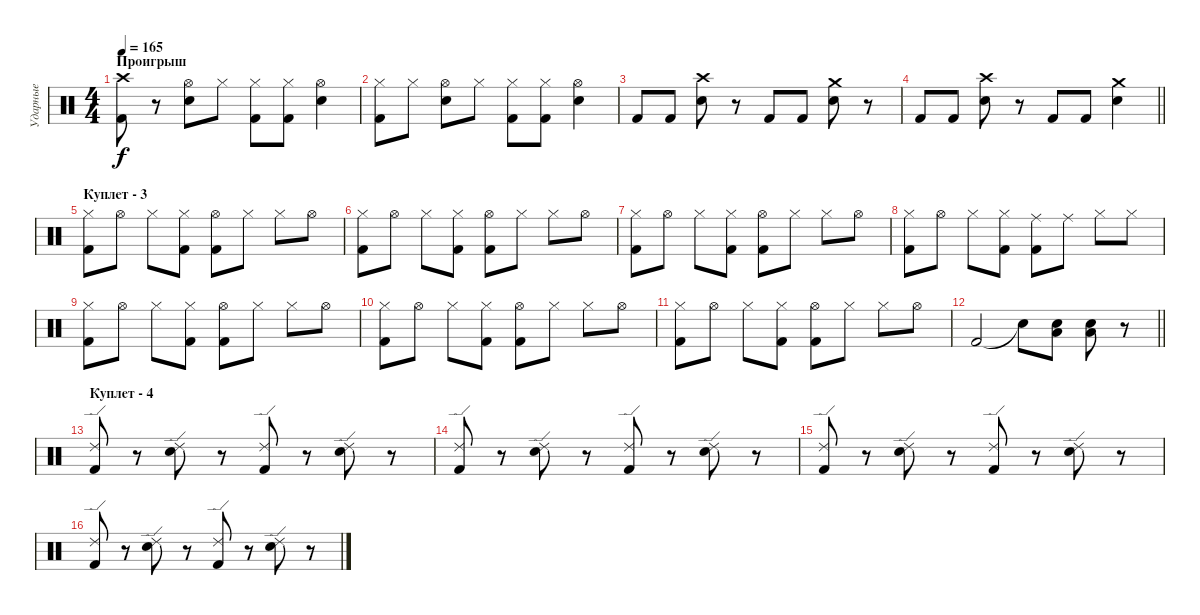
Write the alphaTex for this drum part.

\track ("Ударные" "Ударные") {instrument percussion}
\staff {score}
\articulation defaults
\ts (4 4)
\section ("" "Проигрыш ")
\tempo 165
\clef neutral
\ks c
("Crash high (hit)" "Kick (hit) 2").8{dy f} r.8 ("Hi-Hat (open)" "Snare (hit) 2").8 "Hi-Hat (closed)".8 ("Hi-Hat (closed)" "Kick (hit) 2").8 ("Hi-Hat (closed)" "Kick (hit) 2").8 ("Hi-Hat (open)" "Snare (hit) 2").4 |
("Hi-Hat (closed)" "Kick (hit) 2").8 "Hi-Hat (closed)".8 ("Hi-Hat (open)" "Snare (hit) 2").8 "Hi-Hat (closed)".8 ("Hi-Hat (closed)" "Kick (hit) 2").8 ("Hi-Hat (closed)" "Kick (hit) 2").8 ("Hi-Hat (open)" "Snare (hit) 2").4 |
"Kick (hit) 2".8 "Kick (hit) 2".8 ("Crash high (hit)" "Snare (hit) 2").8 r.8 "Kick (hit) 2".8 "Kick (hit) 2".8 ("Crash medium (hit)" "Snare (hit) 2").8 r.8 |
\barLineRight lightlight "Kick (hit) 2".8 "Kick (hit) 2".8
("Crash high (hit)" "Snare (hit) 2").8 r.8 "Kick (hit) 2".8 "Kick (hit) 2".8 ("Crash medium (hit)" "Snare (hit) 2").4 |
\section ("" "Куплет - 3")
("Hi-Hat (closed)" "Kick (hit) 2").8 "Hi-Hat (open)".8 "Hi-Hat (closed)".8 ("Hi-Hat (closed)" "Kick (hit) 2").8 ("Hi-Hat (open)" "Kick (hit) 2").8 "Hi-Hat (closed)".8 "Hi-Hat (closed)".8 "Hi-Hat (open)".8 |
("Hi-Hat (closed)" "Kick (hit) 2").8 "Hi-Hat (open)".8 "Hi-Hat (closed)".8 ("Hi-Hat (closed)" "Kick (hit) 2").8 ("Hi-Hat (open)" "Kick (hit) 2").8 "Hi-Hat (closed)".8 "Hi-Hat (closed)".8 "Hi-Hat (open)".8 |
("Hi-Hat (closed)" "Kick (hit) 2").8 "Hi-Hat (open)".8 "Hi-Hat (closed)".8 ("Hi-Hat (closed)" "Kick (hit) 2").8 ("Hi-Hat (open)" "Kick (hit) 2").8 "Hi-Hat (closed)".8 "Hi-Hat (closed)".8 "Hi-Hat (open)".8 |
("Hi-Hat (closed)" "Kick (hit) 2").8 "Hi-Hat (open)".8 "Hi-Hat (closed)".8 ("Hi-Hat (closed)" "Kick (hit) 2").8 ("Ride (middle)" "Kick (hit) 2").8 "Ride (middle)".8 "Hi-Hat (closed)".8 "Hi-Hat (closed)".8 |
("Hi-Hat (closed)" "Kick (hit) 2").8 "Hi-Hat (open)".8 "Hi-Hat (closed)".8 ("Hi-Hat (closed)" "Kick (hit) 2").8 ("Hi-Hat (open)" "Kick (hit) 2").8 "Hi-Hat (closed)".8 "Hi-Hat (closed)".8 "Hi-Hat (open)".8 |
("Hi-Hat (closed)" "Kick (hit) 2").8 "Hi-Hat (open)".8 "Hi-Hat (closed)".8 ("Hi-Hat (closed)" "Kick (hit) 2").8 ("Hi-Hat (open)" "Kick (hit) 2").8 "Hi-Hat (closed)".8 "Hi-Hat (closed)".8 "Hi-Hat (open)".8 |
("Hi-Hat (closed)" "Kick (hit) 2").8 "Hi-Hat (open)".8 "Hi-Hat (closed)".8 ("Hi-Hat (closed)" "Kick (hit) 2").8 ("Hi-Hat (open)" "Kick (hit) 2").8 "Hi-Hat (closed)".8 "Hi-Hat (closed)".8 "Hi-Hat (open)".8 |
\barLineRight lightlight "Kick (hit) 2".2 "Snare (hit)"{t}.8
("Low Tom (hit)" "Snare (hit) 2").8 ("Low Floor Tom (hit)" "Snare (hit) 2").8 r.8 |
\section ("" "Куплет - 4")
("Kick (hit) 2" "Ride (edge) 2").8 r.8 ("Snare (hit) 2" "Ride (edge) 2").8 r.8 ("Kick (hit) 2" "Ride (edge) 2").8 r.8 ("Snare (hit) 2" "Ride (edge) 2").8 r.8 |
("Kick (hit) 2" "Ride (edge) 2").8 r.8 ("Snare (hit) 2" "Ride (edge) 2").8 r.8 ("Kick (hit) 2" "Ride (edge) 2").8 r.8 ("Snare (hit) 2" "Ride (edge) 2").8 r.8 |
("Kick (hit) 2" "Ride (edge) 2").8 r.8 ("Snare (hit) 2" "Ride (edge) 2").8 r.8 ("Kick (hit) 2" "Ride (edge) 2").8 r.8 ("Snare (hit) 2" "Ride (edge) 2").8 r.8 |
("Kick (hit) 2" "Ride (edge) 2").8 r.8 ("Snare (hit) 2" "Ride (edge) 2").8 r.8 ("Kick (hit) 2" "Ride (edge) 2").8 r.8 ("Snare (hit) 2" "Ride (edge) 2").8 r.8
